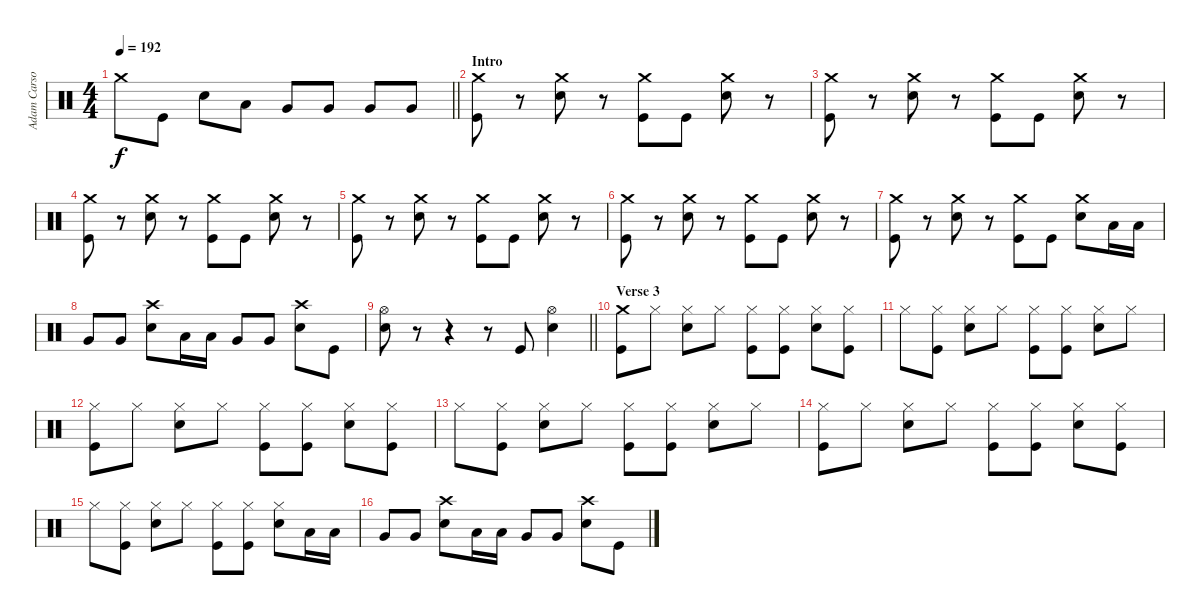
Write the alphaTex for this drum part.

\track ("Adam Carson" "Adam Carso") {instrument percussion}
\staff {score}
\articulation defaults
\ts (4 4)
\tempo 192
\clef neutral
\barLineRight lightlight
\ks c "Crash medium (hit)".8{dy f} "Kick (hit)".8 "Electric Snare (hit)".8 "Low Tom (hit)".8 "Very Low Tom (hit)".8 "Very Low Tom (hit)".8 "Very Low Tom (hit)".8 "Very Low Tom (hit)".8
|
\section ("" "Intro")
("Crash medium (hit)" "Kick (hit)").8 r.8 ("Crash medium (hit)" "Electric Snare (hit)").8 r.8 ("Crash medium (hit)" "Kick (hit)").8 "Kick (hit)".8 ("Crash medium (hit)" "Electric Snare (hit)").8 r.8 |
("Crash medium (hit)" "Kick (hit)").8 r.8 ("Crash medium (hit)" "Electric Snare (hit)").8 r.8 ("Crash medium (hit)" "Kick (hit)").8 "Kick (hit)".8 ("Crash medium (hit)" "Electric Snare (hit)").8 r.8 |
("Crash medium (hit)" "Kick (hit)").8 r.8 ("Crash medium (hit)" "Electric Snare (hit)").8 r.8 ("Crash medium (hit)" "Kick (hit)").8 "Kick (hit)".8 ("Crash medium (hit)" "Electric Snare (hit)").8 r.8 |
("Crash medium (hit)" "Kick (hit)").8 r.8 ("Crash medium (hit)" "Electric Snare (hit)").8 r.8 ("Crash medium (hit)" "Kick (hit)").8 "Kick (hit)".8 ("Crash medium (hit)" "Electric Snare (hit)").8 r.8 |
("Crash medium (hit)" "Kick (hit)").8 r.8 ("Crash medium (hit)" "Electric Snare (hit)").8 r.8 ("Crash medium (hit)" "Kick (hit)").8 "Kick (hit)".8 ("Crash medium (hit)" "Electric Snare (hit)").8 r.8 |
("Crash medium (hit)" "Kick (hit)").8 r.8 ("Crash medium (hit)" "Electric Snare (hit)").8 r.8 ("Crash medium (hit)" "Kick (hit)").8 "Kick (hit)".8 ("Crash medium (hit)" "Electric Snare (hit)").8 "Low Tom (hit)".16 "Low Tom (hit)".16 |
"Very Low Tom (hit)".8 "Very Low Tom (hit)".8 ("Crash high (hit)" "Electric Snare (hit)").8 "Low Tom (hit)".16 "Low Tom (hit)".16 "Very Low Tom (hit)".8 "Very Low Tom (hit)".8 ("Crash high (hit)" "Electric Snare (hit)").8 "Kick (hit)".8 |
\barLineRight lightlight
("Hi-Hat (open)" "Electric Snare (hit)").8 r.8 r.4 r.8 "Kick (hit)".8 ("Hi-Hat (open)" "Electric Snare (hit)").4 |
\section ("" "Verse 3")
("Crash medium (hit)" "Kick (hit)").8 "Hi-Hat (closed)".8 ("Hi-Hat (closed)" "Electric Snare (hit)").8 "Hi-Hat (closed)".8 ("Hi-Hat (closed)" "Kick (hit)").8 ("Hi-Hat (closed)" "Kick (hit)").8 ("Hi-Hat (closed)" "Electric Snare (hit)").8 ("Hi-Hat (closed)" "Kick (hit)").8 |
"Hi-Hat (closed)".8 ("Hi-Hat (closed)" "Kick (hit)").8 ("Hi-Hat (closed)" "Electric Snare (hit)").8 "Hi-Hat (closed)".8 ("Hi-Hat (closed)" "Kick (hit)").8 ("Hi-Hat (closed)" "Kick (hit)").8 ("Hi-Hat (closed)" "Electric Snare (hit)").8 "Hi-Hat (closed)".8 |
("Hi-Hat (closed)" "Kick (hit)").8 "Hi-Hat (closed)".8 ("Hi-Hat (closed)" "Electric Snare (hit)").8 "Hi-Hat (closed)".8 ("Hi-Hat (closed)" "Kick (hit)").8 ("Hi-Hat (closed)" "Kick (hit)").8 ("Hi-Hat (closed)" "Electric Snare (hit)").8 ("Hi-Hat (closed)" "Kick (hit)").8 |
"Hi-Hat (closed)".8 ("Hi-Hat (closed)" "Kick (hit)").8 ("Hi-Hat (closed)" "Electric Snare (hit)").8 "Hi-Hat (closed)".8 ("Hi-Hat (closed)" "Kick (hit)").8 ("Hi-Hat (closed)" "Kick (hit)").8 ("Hi-Hat (closed)" "Electric Snare (hit)").8 "Hi-Hat (closed)".8 |
("Hi-Hat (closed)" "Kick (hit)").8 "Hi-Hat (closed)".8 ("Hi-Hat (closed)" "Electric Snare (hit)").8 "Hi-Hat (closed)".8 ("Hi-Hat (closed)" "Kick (hit)").8 ("Hi-Hat (closed)" "Kick (hit)").8 ("Hi-Hat (closed)" "Electric Snare (hit)").8 ("Hi-Hat (closed)" "Kick (hit)").8 |
"Hi-Hat (closed)".8 ("Hi-Hat (closed)" "Kick (hit)").8 ("Hi-Hat (closed)" "Electric Snare (hit)").8 "Hi-Hat (closed)".8 ("Hi-Hat (closed)" "Kick (hit)").8 ("Hi-Hat (closed)" "Kick (hit)").8 ("Hi-Hat (closed)" "Electric Snare (hit)").8 "Low Tom (hit)".16 "Low Tom (hit)".16 |
"Very Low Tom (hit)".8 "Very Low Tom (hit)".8 ("Crash high (hit)" "Electric Snare (hit)").8 "Low Tom (hit)".16 "Low Tom (hit)".16 "Very Low Tom (hit)".8 "Very Low Tom (hit)".8 ("Crash high (hit)" "Electric Snare (hit)").8 "Kick (hit)".8
